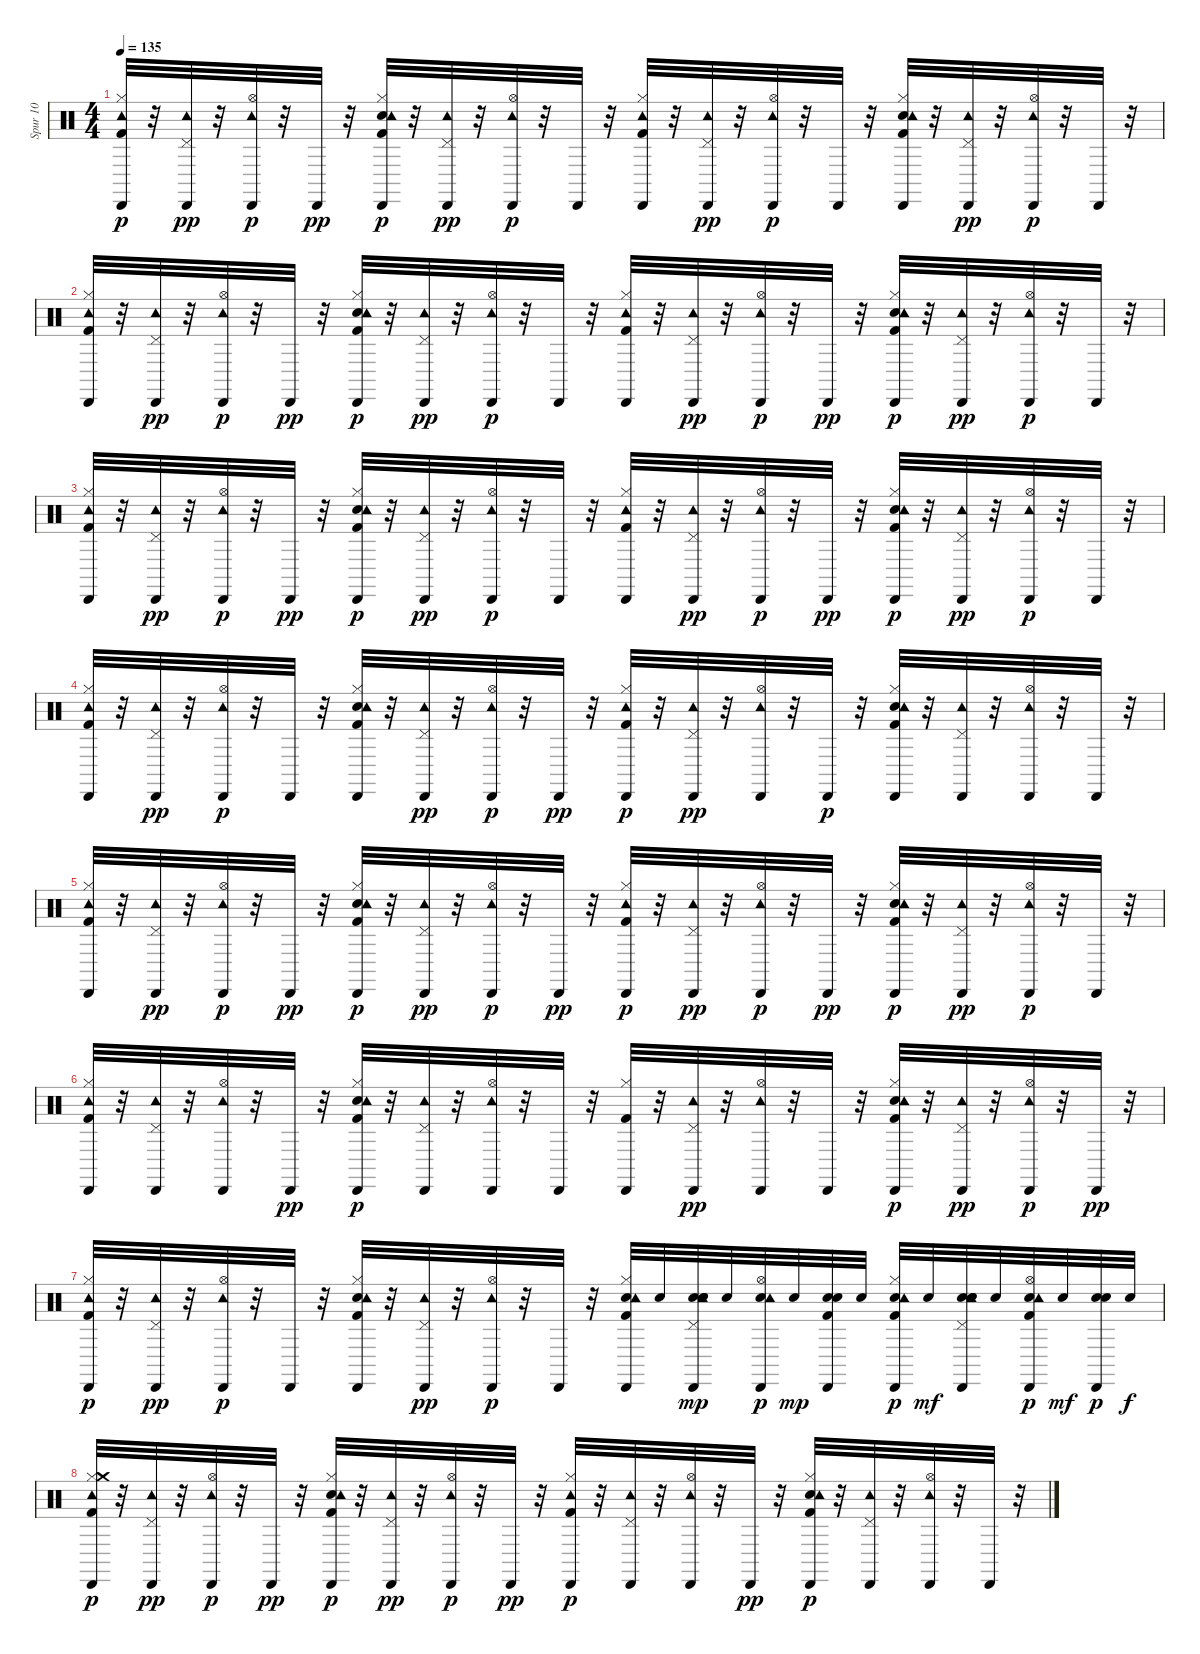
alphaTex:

\track ("Spur 10" "Spur 10") {instrument percussion}
\staff {score}
\articulation defaults
\ts (4 4)
\tempo 135
\clef neutral
\ks c
("Kick (hit) 2" "Hi-Hat (closed)" "Tambourine (hit)" "Cabasa (hit)").32{dy p} r.32 ("Pedal Hi-Hat (hit)" "Tambourine (hit)" "Cabasa (hit)").32{dy pp} r.32 ("Hi-Hat (open)" "Tambourine (hit)" "Cabasa (hit)").32{dy p} r.32 "Cabasa (hit)".32{dy pp} r.32 ("Kick (hit) 2" "Snare (hit) 2" "Hi-Hat (closed)" "Tambourine (hit)" "Cabasa (hit)").32{dy p} r.32 ("Pedal Hi-Hat (hit)" "Tambourine (hit)" "Cabasa (hit)").32{dy pp} r.32 ("Hi-Hat (open)" "Tambourine (hit)" "Cabasa (hit)").32{dy p} r.32 "Cabasa (hit)".32 r.32 ("Kick (hit) 2" "Hi-Hat (closed)" "Tambourine (hit)" "Cabasa (hit)").32 r.32 ("Pedal Hi-Hat (hit)" "Tambourine (hit)" "Cabasa (hit)").32{dy pp} r.32 ("Hi-Hat (open)" "Tambourine (hit)" "Cabasa (hit)").32{dy p} r.32 "Cabasa (hit)".32 r.32 ("Kick (hit) 2" "Snare (hit) 2" "Hi-Hat (closed)" "Tambourine (hit)" "Cabasa (hit)").32 r.32 ("Pedal Hi-Hat (hit)" "Tambourine (hit)" "Cabasa (hit)").32{dy pp} r.32 ("Hi-Hat (open)" "Tambourine (hit)" "Cabasa (hit)").32{dy p} r.32 "Cabasa (hit)".32 r.32 |
("Kick (hit) 2" "Hi-Hat (closed)" "Tambourine (hit)" "Cabasa (hit)").32 r.32 ("Pedal Hi-Hat (hit)" "Tambourine (hit)" "Cabasa (hit)").32{dy pp} r.32 ("Hi-Hat (open)" "Tambourine (hit)" "Cabasa (hit)").32{dy p} r.32 "Cabasa (hit)".32{dy pp} r.32 ("Kick (hit) 2" "Snare (hit) 2" "Hi-Hat (closed)" "Tambourine (hit)" "Cabasa (hit)").32{dy p} r.32 ("Pedal Hi-Hat (hit)" "Tambourine (hit)" "Cabasa (hit)").32{dy pp} r.32 ("Hi-Hat (open)" "Tambourine (hit)" "Cabasa (hit)").32{dy p} r.32 "Cabasa (hit)".32 r.32 ("Kick (hit) 2" "Hi-Hat (closed)" "Tambourine (hit)" "Cabasa (hit)").32 r.32 ("Pedal Hi-Hat (hit)" "Tambourine (hit)" "Cabasa (hit)").32{dy pp} r.32 ("Hi-Hat (open)" "Tambourine (hit)" "Cabasa (hit)").32{dy p} r.32 "Cabasa (hit)".32{dy pp} r.32 ("Kick (hit) 2" "Snare (hit) 2" "Hi-Hat (closed)" "Tambourine (hit)" "Cabasa (hit)").32{dy p} r.32 ("Pedal Hi-Hat (hit)" "Tambourine (hit)" "Cabasa (hit)").32{dy pp} r.32 ("Hi-Hat (open)" "Tambourine (hit)" "Cabasa (hit)").32{dy p} r.32 "Cabasa (hit)".32 r.32 |
("Kick (hit) 2" "Hi-Hat (closed)" "Tambourine (hit)" "Cabasa (hit)").32 r.32 ("Pedal Hi-Hat (hit)" "Tambourine (hit)" "Cabasa (hit)").32{dy pp} r.32 ("Hi-Hat (open)" "Tambourine (hit)" "Cabasa (hit)").32{dy p} r.32 "Cabasa (hit)".32{dy pp} r.32 ("Kick (hit) 2" "Snare (hit) 2" "Hi-Hat (closed)" "Tambourine (hit)" "Cabasa (hit)").32{dy p} r.32 ("Pedal Hi-Hat (hit)" "Tambourine (hit)" "Cabasa (hit)").32{dy pp} r.32 ("Hi-Hat (open)" "Tambourine (hit)" "Cabasa (hit)").32{dy p} r.32 "Cabasa (hit)".32 r.32 ("Kick (hit) 2" "Hi-Hat (closed)" "Tambourine (hit)" "Cabasa (hit)").32 r.32 ("Pedal Hi-Hat (hit)" "Tambourine (hit)" "Cabasa (hit)").32{dy pp} r.32 ("Hi-Hat (open)" "Tambourine (hit)" "Cabasa (hit)").32{dy p} r.32 "Cabasa (hit)".32{dy pp} r.32 ("Kick (hit) 2" "Snare (hit) 2" "Hi-Hat (closed)" "Tambourine (hit)" "Cabasa (hit)").32{dy p} r.32 ("Pedal Hi-Hat (hit)" "Tambourine (hit)" "Cabasa (hit)").32{dy pp} r.32 ("Hi-Hat (open)" "Tambourine (hit)" "Cabasa (hit)").32{dy p} r.32 "Cabasa (hit)".32 r.32 |
("Kick (hit) 2" "Hi-Hat (closed)" "Tambourine (hit)" "Cabasa (hit)").32 r.32 ("Pedal Hi-Hat (hit)" "Tambourine (hit)" "Cabasa (hit)").32{dy pp} r.32 ("Hi-Hat (open)" "Tambourine (hit)" "Cabasa (hit)").32{dy p} r.32 "Cabasa (hit)".32 r.32 ("Kick (hit) 2" "Snare (hit) 2" "Hi-Hat (closed)" "Tambourine (hit)" "Cabasa (hit)").32 r.32 ("Pedal Hi-Hat (hit)" "Tambourine (hit)" "Cabasa (hit)").32{dy pp} r.32 ("Hi-Hat (open)" "Tambourine (hit)" "Cabasa (hit)").32{dy p} r.32 "Cabasa (hit)".32{dy pp} r.32 ("Kick (hit) 2" "Hi-Hat (closed)" "Tambourine (hit)" "Cabasa (hit)").32{dy p} r.32 ("Pedal Hi-Hat (hit)" "Tambourine (hit)" "Cabasa (hit)").32{dy pp} r.32 ("Hi-Hat (open)" "Tambourine (hit)" "Cabasa (hit)").32 r.32 "Cabasa (hit)".32{dy p} r.32 ("Kick (hit) 2" "Snare (hit) 2" "Hi-Hat (closed)" "Tambourine (hit)" "Cabasa (hit)").32 r.32 ("Pedal Hi-Hat (hit)" "Tambourine (hit)" "Cabasa (hit)").32 r.32 ("Hi-Hat (open)" "Tambourine (hit)" "Cabasa (hit)").32 r.32 "Cabasa (hit)".32 r.32 |
("Kick (hit) 2" "Hi-Hat (closed)" "Tambourine (hit)" "Cabasa (hit)").32 r.32 ("Pedal Hi-Hat (hit)" "Tambourine (hit)" "Cabasa (hit)").32{dy pp} r.32 ("Hi-Hat (open)" "Tambourine (hit)" "Cabasa (hit)").32{dy p} r.32 "Cabasa (hit)".32{dy pp} r.32 ("Kick (hit) 2" "Snare (hit) 2" "Hi-Hat (closed)" "Tambourine (hit)" "Cabasa (hit)").32{dy p} r.32 ("Pedal Hi-Hat (hit)" "Tambourine (hit)" "Cabasa (hit)").32{dy pp} r.32 ("Hi-Hat (open)" "Tambourine (hit)" "Cabasa (hit)").32{dy p} r.32 "Cabasa (hit)".32{dy pp} r.32 ("Kick (hit) 2" "Hi-Hat (closed)" "Tambourine (hit)" "Cabasa (hit)").32{dy p} r.32 ("Pedal Hi-Hat (hit)" "Tambourine (hit)" "Cabasa (hit)").32{dy pp} r.32 ("Hi-Hat (open)" "Tambourine (hit)" "Cabasa (hit)").32{dy p} r.32 "Cabasa (hit)".32{dy pp} r.32 ("Kick (hit) 2" "Snare (hit) 2" "Hi-Hat (closed)" "Tambourine (hit)" "Cabasa (hit)").32{dy p} r.32 ("Pedal Hi-Hat (hit)" "Tambourine (hit)" "Cabasa (hit)").32{dy pp} r.32 ("Hi-Hat (open)" "Tambourine (hit)" "Cabasa (hit)").32{dy p} r.32 "Cabasa (hit)".32 r.32 |
("Kick (hit) 2" "Hi-Hat (closed)" "Tambourine (hit)" "Cabasa (hit)").32 r.32 ("Pedal Hi-Hat (hit)" "Tambourine (hit)" "Cabasa (hit)").32 r.32 ("Hi-Hat (open)" "Tambourine (hit)" "Cabasa (hit)").32 r.32 "Cabasa (hit)".32{dy pp} r.32 ("Kick (hit) 2" "Snare (hit) 2" "Hi-Hat (closed)" "Tambourine (hit)" "Cabasa (hit)").32{dy p} r.32 ("Pedal Hi-Hat (hit)" "Tambourine (hit)" "Cabasa (hit)").32 r.32 ("Hi-Hat (open)" "Tambourine (hit)" "Cabasa (hit)").32 r.32 "Cabasa (hit)".32 r.32 ("Kick (hit) 2" "Hi-Hat (closed)" "Cabasa (hit)").32 r.32 ("Pedal Hi-Hat (hit)" "Tambourine (hit)" "Cabasa (hit)").32{dy pp} r.32 ("Hi-Hat (open)" "Tambourine (hit)" "Cabasa (hit)").32 r.32 "Cabasa (hit)".32 r.32 ("Kick (hit) 2" "Snare (hit) 2" "Hi-Hat (closed)" "Tambourine (hit)" "Cabasa (hit)").32{dy p} r.32 ("Pedal Hi-Hat (hit)" "Tambourine (hit)" "Cabasa (hit)").32{dy pp} r.32 ("Hi-Hat (open)" "Tambourine (hit)" "Cabasa (hit)").32{dy p} r.32 "Cabasa (hit)".32{dy pp} r.32 |
("Kick (hit) 2" "Hi-Hat (closed)" "Tambourine (hit)" "Cabasa (hit)").32{dy p} r.32 ("Pedal Hi-Hat (hit)" "Tambourine (hit)" "Cabasa (hit)").32{dy pp} r.32 ("Hi-Hat (open)" "Tambourine (hit)" "Cabasa (hit)").32{dy p} r.32 "Cabasa (hit)".32 r.32 ("Kick (hit) 2" "Snare (hit) 2" "Hi-Hat (closed)" "Tambourine (hit)" "Cabasa (hit)").32 r.32 ("Pedal Hi-Hat (hit)" "Tambourine (hit)" "Cabasa (hit)").32{dy pp} r.32 ("Hi-Hat (open)" "Tambourine (hit)" "Cabasa (hit)").32{dy p} r.32 "Cabasa (hit)".32 r.32 ("Kick (hit) 2" "Snare (hit) 2" "Hi-Hat (closed)" "Tambourine (hit)" "Cabasa (hit)").32 "Snare (hit) 2".32 ("Snare (hit) 2" "Snare (hit) 2" "Pedal Hi-Hat (hit)" "Tambourine (hit)" "Cabasa (hit)" "Snare (hit) 2").32{dy mp} "Snare (hit) 2".32 ("Snare (hit) 2" "Hi-Hat (open)" "Tambourine (hit)" "Cabasa (hit)").32{dy p} "Snare (hit) 2".32{dy mp} ("Snare (hit) 2" "Kick (hit) 2" "Cabasa (hit)" "Snare (hit) 2").32 "Snare (hit) 2".32 ("Kick (hit) 2" "Snare (hit) 2" "Hi-Hat (closed)" "Tambourine (hit)" "Cabasa (hit)").32{dy p} "Snare (hit) 2".32{dy mf} ("Snare (hit) 2" "Snare (hit) 2" "Pedal Hi-Hat (hit)" "Tambourine (hit)" "Cabasa (hit)" "Snare (hit) 2").32 "Snare (hit) 2".32 ("Kick (hit) 2" "Snare (hit) 2" "Hi-Hat (open)" "Tambourine (hit)" "Cabasa (hit)").32{dy p} "Snare (hit) 2".32{dy mf} ("Snare (hit) 2" "Cabasa (hit)" "Snare (hit) 2").32{dy p} "Snare (hit) 2".32{dy f} |
("Kick (hit) 2" "Hi-Hat (closed)" "Tambourine (hit)" "Crash medium (hit)" "Cabasa (hit)").32{dy p} r.32 ("Pedal Hi-Hat (hit)" "Tambourine (hit)" "Cabasa (hit)").32{dy pp} r.32 ("Hi-Hat (open)" "Tambourine (hit)" "Cabasa (hit)").32{dy p} r.32 "Cabasa (hit)".32{dy pp} r.32 ("Kick (hit) 2" "Snare (hit) 2" "Hi-Hat (closed)" "Tambourine (hit)" "Cabasa (hit)").32{dy p} r.32 ("Pedal Hi-Hat (hit)" "Tambourine (hit)" "Cabasa (hit)").32{dy pp} r.32 ("Hi-Hat (open)" "Tambourine (hit)" "Cabasa (hit)").32{dy p} r.32 "Cabasa (hit)".32{dy pp} r.32 ("Kick (hit) 2" "Hi-Hat (closed)" "Tambourine (hit)" "Cabasa (hit)").32{dy p} r.32 ("Pedal Hi-Hat (hit)" "Tambourine (hit)" "Cabasa (hit)").32 r.32 ("Hi-Hat (open)" "Tambourine (hit)" "Cabasa (hit)").32 r.32 "Cabasa (hit)".32{dy pp} r.32 ("Kick (hit) 2" "Snare (hit) 2" "Hi-Hat (closed)" "Tambourine (hit)" "Cabasa (hit)").32{dy p} r.32 ("Pedal Hi-Hat (hit)" "Tambourine (hit)" "Cabasa (hit)").32 r.32 ("Hi-Hat (open)" "Tambourine (hit)" "Cabasa (hit)").32 r.32 "Cabasa (hit)".32 r.32
